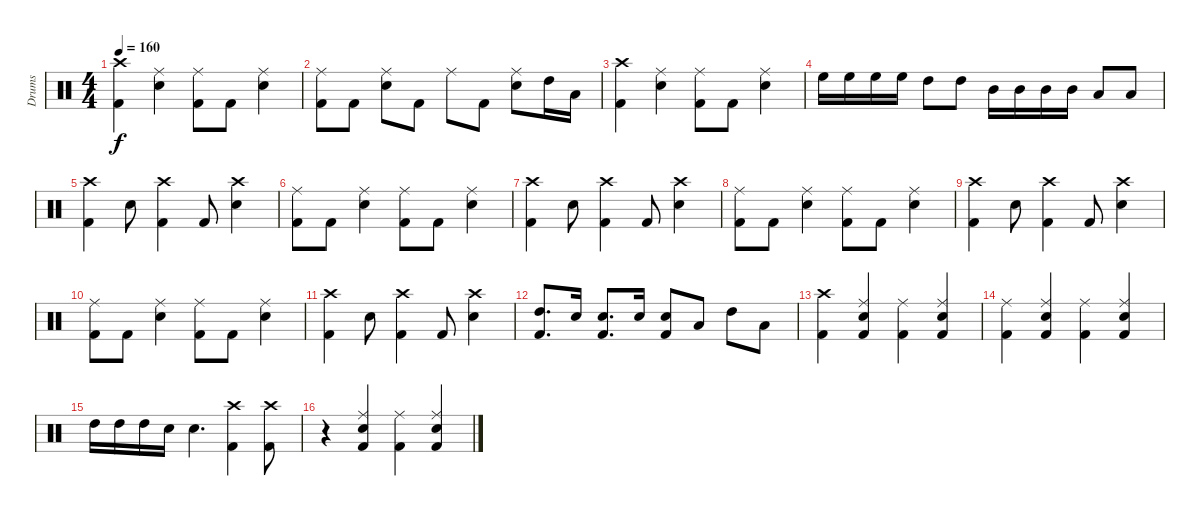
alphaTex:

\track ("Drums" "Drums") {instrument percussion}
\staff {score}
\articulation defaults
\ts (4 4)
\tempo 160
\clef neutral
\ks c
("Crash high (hit)" "Kick (hit) 2").4{dy f} ("Ride (middle)" "Snare (hit) 2").4 ("Ride (middle)" "Kick (hit) 2").8 "Kick (hit) 2".8 ("Ride (middle)" "Snare (hit) 2").4 |
("Ride (middle)" "Kick (hit) 2").8 "Kick (hit) 2".8 ("Ride (middle)" "Snare (hit) 2").8 "Kick (hit) 2".8 "Ride (middle)".8 "Kick (hit) 2".8 ("Ride (middle)" "Snare (hit) 2").8 "High Tom (hit)".16 "Low Tom (hit)".16 |
("Crash high (hit)" "Kick (hit) 2").4 ("Ride (middle)" "Snare (hit) 2").4 ("Ride (middle)" "Kick (hit) 2").8 "Kick (hit) 2".8 ("Ride (middle)" "Snare (hit) 2").4 |
"High Floor Tom (hit)".16 "High Floor Tom (hit)".16 "High Floor Tom (hit)".16 "High Floor Tom (hit)".16 "High Tom (hit)".8 "High Tom (hit)".8 "Mid Tom (hit)".16 "Mid Tom (hit)".16 "Mid Tom (hit)".16 "Mid Tom (hit)".16 "Low Tom (hit)".8 "Low Tom (hit)".8 |
("Crash high (hit)" "Kick (hit) 2").4 "Snare (hit) 2".8 ("Crash high (hit)" "Kick (hit) 2").4 "Kick (hit) 2".8 ("Crash high (hit)" "Snare (hit) 2").4 |
("Ride (middle)" "Kick (hit) 2").8 "Kick (hit) 2".8 ("Ride (middle)" "Snare (hit) 2").4 ("Ride (middle)" "Kick (hit) 2").8 "Kick (hit) 2".8 ("Ride (middle)" "Snare (hit) 2").4 |
("Crash high (hit)" "Kick (hit) 2").4 "Snare (hit) 2".8 ("Crash high (hit)" "Kick (hit) 2").4 "Kick (hit) 2".8 ("Crash high (hit)" "Snare (hit) 2").4 |
("Ride (middle)" "Kick (hit) 2").8 "Kick (hit) 2".8 ("Ride (middle)" "Snare (hit) 2").4 ("Ride (middle)" "Kick (hit) 2").8 "Kick (hit) 2".8 ("Ride (middle)" "Snare (hit) 2").4 |
("Crash high (hit)" "Kick (hit) 2").4 "Snare (hit) 2".8 ("Crash high (hit)" "Kick (hit) 2").4 "Kick (hit) 2".8 ("Crash high (hit)" "Snare (hit) 2").4 |
("Ride (middle)" "Kick (hit) 2").8 "Kick (hit) 2".8 ("Ride (middle)" "Snare (hit) 2").4 ("Ride (middle)" "Kick (hit) 2").8 "Kick (hit) 2".8 ("Ride (middle)" "Snare (hit) 2").4 |
("Crash high (hit)" "Kick (hit) 2").4 "Snare (hit) 2".8 ("Crash high (hit)" "Kick (hit) 2").4 "Kick (hit) 2".8 ("Crash high (hit)" "Snare (hit) 2").4 |
("High Tom (hit)" "Kick (hit) 2").8{d} "Snare (hit) 2".16 ("Snare (hit) 2" "Kick (hit) 2").8{d} "Snare (hit) 2".16 ("Snare (hit) 2" "Kick (hit) 2").8 "Low Tom (hit)".8 "High Tom (hit)".8 "Low Tom (hit)".8 |
("Crash high (hit)" "Kick (hit) 2").4 ("Ride (middle)" "Kick (hit) 2" "Snare (hit) 2").4 ("Ride (middle)" "Kick (hit) 2").4 ("Ride (middle)" "Kick (hit) 2" "Snare (hit) 2").4 |
("Ride (middle)" "Kick (hit) 2").4 ("Ride (middle)" "Kick (hit) 2" "Snare (hit) 2").4 ("Ride (middle)" "Kick (hit) 2").4 ("Ride (middle)" "Kick (hit) 2" "Snare (hit) 2").4 |
"High Tom (hit)".16 "High Tom (hit)".16 "High Tom (hit)".16 "Snare (hit) 2".16 "Snare (hit) 2".4{d} ("Crash high (hit)" "Kick (hit) 2").4 ("Crash high (hit)" "Kick (hit) 2").8 |
r.4 ("Ride (middle)" "Kick (hit) 2" "Snare (hit) 2").4 ("Ride (middle)" "Kick (hit) 2").4 ("Ride (middle)" "Kick (hit) 2" "Snare (hit) 2").4
